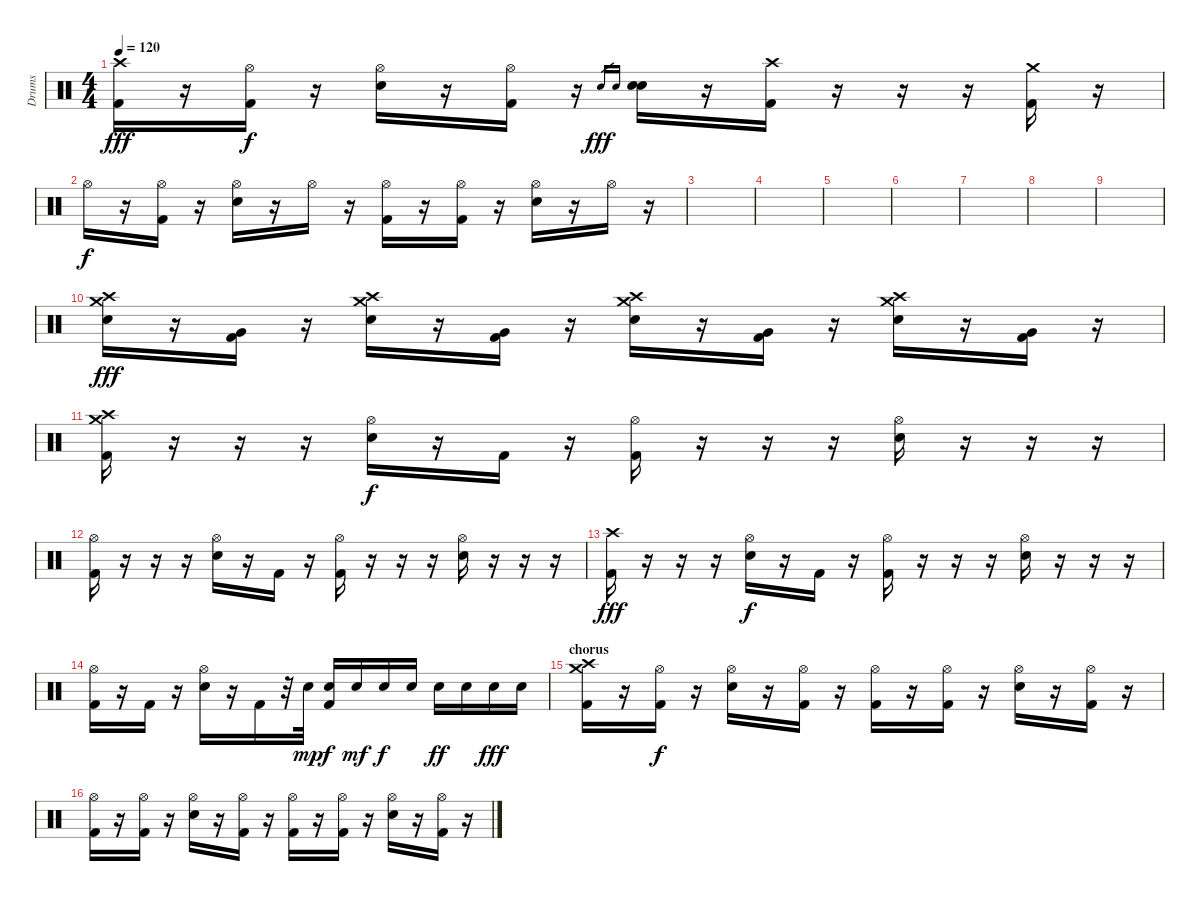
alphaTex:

\track ("Drums" "Drums") {instrument percussion}
\staff {score}
\articulation defaults
\ts (4 4)
\tempo 120
\clef neutral
\ks c
("Crash high (hit)" "Kick (hit) 2").16{dy fff} r.16 ("Hi-Hat (open)" "Kick (hit) 2").16{dy f} r.16 ("Hi-Hat (open)" "Electric Snare (hit)").16 r.16 ("Hi-Hat (open)" "Kick (hit) 2").16 r.16 "Electric Snare (hit)".16{gr dy fff} "Electric Snare (hit)".16{gr} ("Electric Snare (hit)" "Electric Snare (hit)").16 r.16 ("Crash high (hit)" "Kick (hit) 2").16 r.16 r.16 r.16 ("Crash medium (hit)" "Kick (hit) 2").16 r.16 |
"Hi-Hat (open)".16{dy f} r.16 ("Hi-Hat (open)" "Kick (hit) 2").16 r.16 ("Hi-Hat (open)" "Electric Snare (hit)").16 r.16 "Hi-Hat (open)".16 r.16 ("Hi-Hat (open)" "Kick (hit) 2").16 r.16 ("Hi-Hat (open)" "Kick (hit) 2").16 r.16 ("Hi-Hat (open)" "Electric Snare (hit)").16 r.16 "Hi-Hat (open)".16 r.16 |
|
|
|
|
|
|
|
("Crash medium (hit)" "Crash high (hit)" "Electric Snare (hit)").16{dy fff volume 16} r.16 ("Very Low Tom (hit)" "Kick (hit) 2").16 r.16 ("Crash medium (hit)" "Crash high (hit)" "Electric Snare (hit)").16 r.16 ("Very Low Tom (hit)" "Kick (hit) 2").16 r.16 ("Crash medium (hit)" "Crash high (hit)" "Electric Snare (hit)").16 r.16 ("Very Low Tom (hit)" "Kick (hit) 2").16 r.16 ("Crash medium (hit)" "Crash high (hit)" "Electric Snare (hit)").16 r.16 ("Very Low Tom (hit)" "Kick (hit) 2").16 r.16 |
("Crash high (hit)" "Crash medium (hit)" "Kick (hit) 2").16{volume 14} r.16 r.16 r.16 ("Hi-Hat (open)" "Electric Snare (hit)").16{dy f} r.16 "Kick (hit) 2".16 r.16 ("Hi-Hat (open)" "Kick (hit) 2").16 r.16 r.16 r.16 ("Hi-Hat (open)" "Electric Snare (hit)").16 r.16 r.16 r.16 |
("Hi-Hat (open)" "Kick (hit) 2").16 r.16 r.16 r.16 ("Hi-Hat (open)" "Electric Snare (hit)").16 r.16 "Kick (hit) 2".16 r.16 ("Hi-Hat (open)" "Kick (hit) 2").16 r.16 r.16 r.16 ("Hi-Hat (open)" "Electric Snare (hit)").16 r.16 r.16 r.16 |
("Crash high (hit)" "Kick (hit) 2").16{dy fff} r.16 r.16 r.16 ("Hi-Hat (open)" "Electric Snare (hit)").16{dy f} r.16 "Kick (hit) 2".16 r.16 ("Hi-Hat (open)" "Kick (hit) 2").16 r.16 r.16 r.16 ("Hi-Hat (open)" "Electric Snare (hit)").16 r.16 r.16 r.16 |
("Hi-Hat (open)" "Kick (hit) 2").16 r.16 "Kick (hit) 2".16 r.16 ("Hi-Hat (open)" "Electric Snare (hit)").16 r.16 "Kick (hit) 2".16 r.32 "Electric Snare (hit)".32{dy mp} ("Electric Snare (hit)" "Kick (hit) 2").16{dy f} "Electric Snare (hit)".16{dy mf} "Electric Snare (hit)".16{dy f} "Electric Snare (hit)".16 "Electric Snare (hit)".16{dy ff} "Electric Snare (hit)".16 "Electric Snare (hit)".16{dy fff} "Electric Snare (hit)".16 |
\section ("" "chorus")
("Crash high (hit)" "Crash medium (hit)" "Kick (hit) 2").16 r.16 ("Hi-Hat (open)" "Kick (hit) 2").16{dy f} r.16 ("Hi-Hat (open)" "Electric Snare (hit)").16 r.16 ("Hi-Hat (open)" "Kick (hit) 2").16 r.16 ("Hi-Hat (open)" "Kick (hit) 2").16 r.16 ("Hi-Hat (open)" "Kick (hit) 2").16 r.16 ("Hi-Hat (open)" "Electric Snare (hit)").16 r.16 ("Hi-Hat (open)" "Kick (hit) 2").16 r.16 |
("Hi-Hat (open)" "Kick (hit) 2").16 r.16 ("Hi-Hat (open)" "Kick (hit) 2").16 r.16 ("Hi-Hat (open)" "Electric Snare (hit)").16 r.16 ("Hi-Hat (open)" "Kick (hit) 2").16 r.16 ("Hi-Hat (open)" "Kick (hit) 2").16 r.16 ("Hi-Hat (open)" "Kick (hit) 2").16 r.16 ("Hi-Hat (open)" "Electric Snare (hit)").16 r.16 ("Hi-Hat (open)" "Kick (hit) 2").16 r.16
